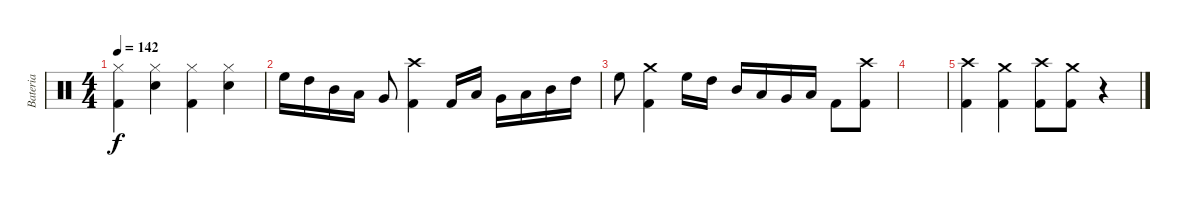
\track ("Bateria" "Bateria") {instrument percussion}
\staff {score}
\articulation defaults
\ts (4 4)
\tempo 142
\clef neutral
\ks c
("Hi-Hat (closed)" "Kick (hit) 2").4{dy f} ("Hi-Hat (closed)" "Electric Snare (hit)").4 ("Hi-Hat (closed)" "Kick (hit) 2").4 ("Hi-Hat (closed)" "Electric Snare (hit)").4 |
"High Floor Tom (hit)".16 "High Tom (hit)".16 "Mid Tom (hit)".16 "Low Tom (hit)".16 "Very Low Tom (hit)".8 ("Crash high (hit)" "Kick (hit) 2").4 "Kick (hit) 2".16 "Low Floor Tom (hit)".16 "Very Low Tom (hit)".16 "Low Tom (hit)".16 "Mid Tom (hit)".16 "High Tom (hit)".16 |
"High Floor Tom (hit)".8 ("Crash medium (hit)" "Kick (hit) 2").4 "High Floor Tom (hit)".16 "High Tom (hit)".16 "Mid Tom (hit)".16 "Low Tom (hit)".16 "Very Low Tom (hit)".16 "Low Floor Tom (hit)".16 "Kick (hit) 2".8 ("Crash high (hit)" "Kick (hit) 2").8 |
|
("Crash high (hit)" "Kick (hit) 2").4 ("Crash medium (hit)" "Kick (hit) 2").4 ("Crash high (hit)" "Kick (hit) 2").8 ("Crash medium (hit)" "Kick (hit) 2").8 r.4
